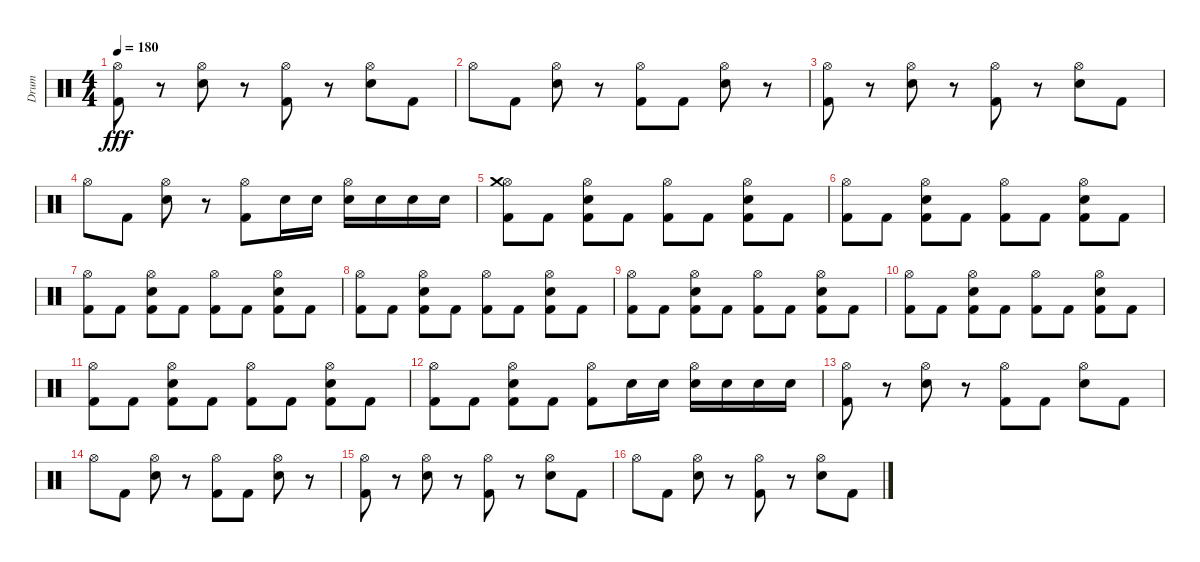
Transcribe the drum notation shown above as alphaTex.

\track ("Drum" "Drum") {instrument percussion}
\staff {score}
\articulation defaults
\ts (4 4)
\tempo 180
\clef neutral
\ks c
("Hi-Hat (open)" "Kick (hit) 2").8{dy fff} r.8 ("Hi-Hat (open)" "Electric Snare (hit)").8 r.8 ("Hi-Hat (open)" "Kick (hit) 2").8 r.8 ("Hi-Hat (open)" "Electric Snare (hit)").8 "Kick (hit) 2".8 |
"Hi-Hat (open)".8 "Kick (hit) 2".8 ("Hi-Hat (open)" "Electric Snare (hit)").8 r.8 ("Hi-Hat (open)" "Kick (hit) 2").8 "Kick (hit) 2".8 ("Hi-Hat (open)" "Electric Snare (hit)").8 r.8 |
("Hi-Hat (open)" "Kick (hit) 2").8 r.8 ("Hi-Hat (open)" "Electric Snare (hit)").8 r.8 ("Hi-Hat (open)" "Kick (hit) 2").8 r.8 ("Hi-Hat (open)" "Electric Snare (hit)").8 "Kick (hit) 2".8 |
"Hi-Hat (open)".8 "Kick (hit) 2".8 ("Hi-Hat (open)" "Electric Snare (hit)").8 r.8 ("Hi-Hat (open)" "Kick (hit) 2").8 "Electric Snare (hit)".16 "Electric Snare (hit)".16 ("Hi-Hat (open)" "Electric Snare (hit)").16 "Electric Snare (hit)".16 "Electric Snare (hit)".16 "Electric Snare (hit)".16 |
("Hi-Hat (open)" "Crash medium (hit)" "Kick (hit) 2").8 "Kick (hit) 2".8 ("Hi-Hat (open)" "Electric Snare (hit)" "Kick (hit) 2").8 "Kick (hit) 2".8 ("Hi-Hat (open)" "Kick (hit) 2").8 "Kick (hit) 2".8 ("Hi-Hat (open)" "Electric Snare (hit)" "Kick (hit) 2").8 "Kick (hit) 2".8 |
("Hi-Hat (open)" "Kick (hit) 2").8 "Kick (hit) 2".8 ("Hi-Hat (open)" "Electric Snare (hit)" "Kick (hit) 2").8 "Kick (hit) 2".8 ("Hi-Hat (open)" "Kick (hit) 2").8 "Kick (hit) 2".8 ("Hi-Hat (open)" "Electric Snare (hit)" "Kick (hit) 2").8 "Kick (hit) 2".8 |
("Hi-Hat (open)" "Kick (hit) 2").8 "Kick (hit) 2".8 ("Hi-Hat (open)" "Electric Snare (hit)" "Kick (hit) 2").8 "Kick (hit) 2".8 ("Hi-Hat (open)" "Kick (hit) 2").8 "Kick (hit) 2".8 ("Hi-Hat (open)" "Electric Snare (hit)" "Kick (hit) 2").8 "Kick (hit) 2".8 |
("Hi-Hat (open)" "Kick (hit) 2").8 "Kick (hit) 2".8 ("Hi-Hat (open)" "Electric Snare (hit)" "Kick (hit) 2").8 "Kick (hit) 2".8 ("Hi-Hat (open)" "Kick (hit) 2").8 "Kick (hit) 2".8 ("Hi-Hat (open)" "Electric Snare (hit)" "Kick (hit) 2").8 "Kick (hit) 2".8 |
("Hi-Hat (open)" "Kick (hit) 2").8 "Kick (hit) 2".8 ("Hi-Hat (open)" "Electric Snare (hit)" "Kick (hit) 2").8 "Kick (hit) 2".8 ("Hi-Hat (open)" "Kick (hit) 2").8 "Kick (hit) 2".8 ("Hi-Hat (open)" "Electric Snare (hit)" "Kick (hit) 2").8 "Kick (hit) 2".8 |
("Hi-Hat (open)" "Kick (hit) 2").8 "Kick (hit) 2".8 ("Hi-Hat (open)" "Electric Snare (hit)" "Kick (hit) 2").8 "Kick (hit) 2".8 ("Hi-Hat (open)" "Kick (hit) 2").8 "Kick (hit) 2".8 ("Hi-Hat (open)" "Electric Snare (hit)" "Kick (hit) 2").8 "Kick (hit) 2".8 |
("Hi-Hat (open)" "Kick (hit) 2").8 "Kick (hit) 2".8 ("Hi-Hat (open)" "Electric Snare (hit)" "Kick (hit) 2").8 "Kick (hit) 2".8 ("Hi-Hat (open)" "Kick (hit) 2").8 "Kick (hit) 2".8 ("Hi-Hat (open)" "Electric Snare (hit)" "Kick (hit) 2").8 "Kick (hit) 2".8 |
("Hi-Hat (open)" "Kick (hit) 2").8 "Kick (hit) 2".8 ("Hi-Hat (open)" "Electric Snare (hit)" "Kick (hit) 2").8 "Kick (hit) 2".8 ("Hi-Hat (open)" "Kick (hit) 2").8 "Electric Snare (hit)".16 "Electric Snare (hit)".16 ("Hi-Hat (open)" "Electric Snare (hit)").16 "Electric Snare (hit)".16 "Electric Snare (hit)".16 "Electric Snare (hit)".16 |
("Hi-Hat (open)" "Kick (hit) 2").8 r.8 ("Hi-Hat (open)" "Electric Snare (hit)").8 r.8 ("Hi-Hat (open)" "Kick (hit) 2").8 "Kick (hit) 2".8 ("Hi-Hat (open)" "Electric Snare (hit)").8 "Kick (hit) 2".8 |
"Hi-Hat (open)".8 "Kick (hit) 2".8 ("Hi-Hat (open)" "Electric Snare (hit)").8 r.8 ("Hi-Hat (open)" "Kick (hit) 2").8 "Kick (hit) 2".8 ("Hi-Hat (open)" "Electric Snare (hit)").8 r.8 |
("Hi-Hat (open)" "Kick (hit) 2").8 r.8 ("Hi-Hat (open)" "Electric Snare (hit)").8 r.8 ("Hi-Hat (open)" "Kick (hit) 2").8 r.8 ("Hi-Hat (open)" "Electric Snare (hit)").8 "Kick (hit) 2".8 |
"Hi-Hat (open)".8 "Kick (hit) 2".8 ("Hi-Hat (open)" "Electric Snare (hit)").8 r.8 ("Hi-Hat (open)" "Kick (hit) 2").8 r.8 ("Hi-Hat (open)" "Electric Snare (hit)").8 "Kick (hit) 2".8
